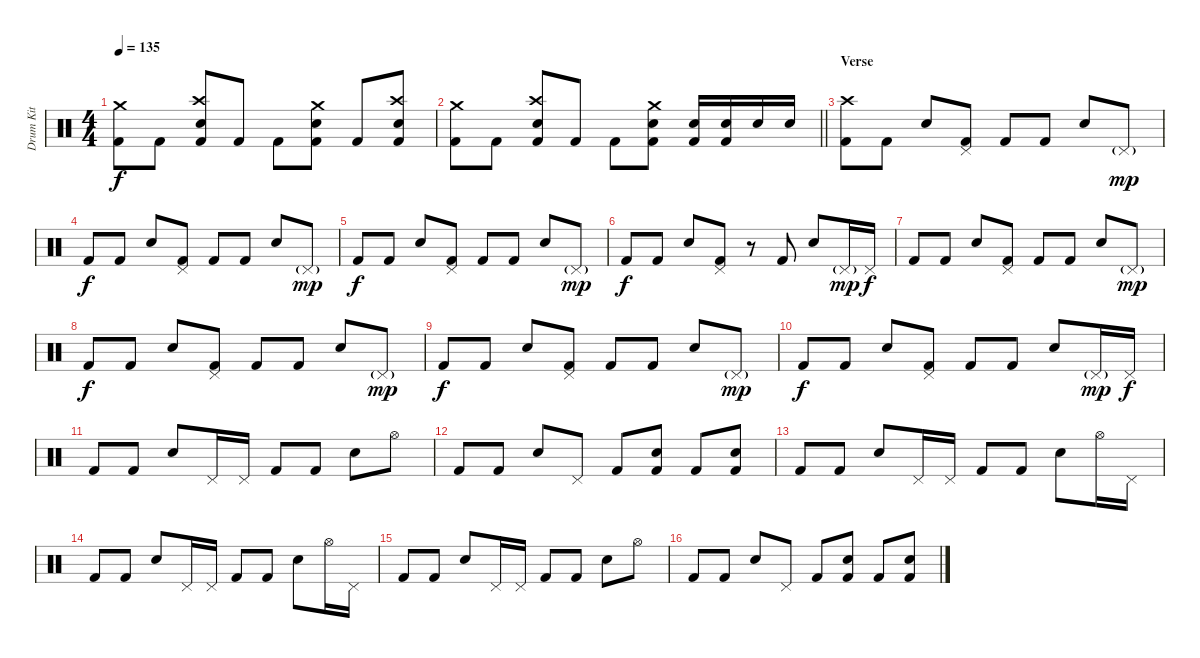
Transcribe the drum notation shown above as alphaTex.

\track ("Drum Kit" "Drum Kit") {instrument percussion}
\staff {score}
\articulation defaults
\ts (4 4)
\tempo 135
\clef neutral
\ks c
("Crash medium (hit)" "Kick (hit) 2").8{dy f} "Kick (hit) 2".8 ("Crash high (hit)" "Electric Snare (hit)" "Kick (hit) 2").8 "Kick (hit) 2".8 "Kick (hit) 2".8 ("Crash medium (hit)" "Electric Snare (hit)" "Kick (hit) 2").8 "Kick (hit) 2".8 ("Crash high (hit)" "Electric Snare (hit)" "Kick (hit) 2").8 |
\barLineRight lightlight
("Crash medium (hit)" "Kick (hit) 2").8 "Kick (hit) 2".8 ("Crash high (hit)" "Electric Snare (hit)" "Kick (hit) 2").8 "Kick (hit) 2".8 "Kick (hit) 2".8 ("Crash medium (hit)" "Electric Snare (hit)" "Kick (hit) 2").8 ("Electric Snare (hit)" "Kick (hit) 2").16 ("Electric Snare (hit)" "Kick (hit) 2").16 "Electric Snare (hit)".16 "Electric Snare (hit)".16 |
\section ("" "Verse")
("Crash high (hit)" "Kick (hit) 2").8 "Kick (hit) 2".8 "Electric Snare (hit)".8 ("Pedal Hi-Hat (hit)" "Kick (hit) 2").8 "Kick (hit) 2".8 "Kick (hit) 2".8 "Electric Snare (hit)".8 "Pedal Hi-Hat (hit)"{g}.8{dy mp} |
"Kick (hit) 2".8{dy f} "Kick (hit) 2".8 "Electric Snare (hit)".8 ("Pedal Hi-Hat (hit)" "Kick (hit) 2").8 "Kick (hit) 2".8 "Kick (hit) 2".8 "Electric Snare (hit)".8 "Pedal Hi-Hat (hit)"{g}.8{dy mp} |
"Kick (hit) 2".8{dy f} "Kick (hit) 2".8 "Electric Snare (hit)".8 ("Pedal Hi-Hat (hit)" "Kick (hit) 2").8 "Kick (hit) 2".8 "Kick (hit) 2".8 "Electric Snare (hit)".8 "Pedal Hi-Hat (hit)"{g}.8{dy mp} |
"Kick (hit) 2".8{dy f} "Kick (hit) 2".8 "Electric Snare (hit)".8 ("Pedal Hi-Hat (hit)" "Kick (hit) 2").8 r.8 "Kick (hit) 2".8 "Electric Snare (hit)".8 "Pedal Hi-Hat (hit)"{g}.16{dy mp} "Pedal Hi-Hat (hit)".16{dy f} |
"Kick (hit) 2".8 "Kick (hit) 2".8 "Electric Snare (hit)".8 ("Pedal Hi-Hat (hit)" "Kick (hit) 2").8 "Kick (hit) 2".8 "Kick (hit) 2".8 "Electric Snare (hit)".8 "Pedal Hi-Hat (hit)"{g}.8{dy mp} |
"Kick (hit) 2".8{dy f} "Kick (hit) 2".8 "Electric Snare (hit)".8 ("Pedal Hi-Hat (hit)" "Kick (hit) 2").8 "Kick (hit) 2".8 "Kick (hit) 2".8 "Electric Snare (hit)".8 "Pedal Hi-Hat (hit)"{g}.8{dy mp} |
"Kick (hit) 2".8{dy f} "Kick (hit) 2".8 "Electric Snare (hit)".8 ("Pedal Hi-Hat (hit)" "Kick (hit) 2").8 "Kick (hit) 2".8 "Kick (hit) 2".8 "Electric Snare (hit)".8 "Pedal Hi-Hat (hit)"{g}.8{dy mp} |
"Kick (hit) 2".8{dy f} "Kick (hit) 2".8 "Electric Snare (hit)".8 ("Pedal Hi-Hat (hit)" "Kick (hit) 2").8 "Kick (hit) 2".8 "Kick (hit) 2".8 "Electric Snare (hit)".8 "Pedal Hi-Hat (hit)"{g}.16{dy mp} "Pedal Hi-Hat (hit)".16{dy f} |
"Kick (hit) 2".8 "Kick (hit) 2".8 "Electric Snare (hit)".8 "Pedal Hi-Hat (hit)".16 "Pedal Hi-Hat (hit)".16 "Kick (hit) 2".8 "Kick (hit) 2".8 "Electric Snare (hit)".8 "Hi-Hat (open)".8 |
"Kick (hit) 2".8 "Kick (hit) 2".8 "Electric Snare (hit)".8 "Pedal Hi-Hat (hit)".8 "Kick (hit) 2".8 ("Electric Snare (hit)" "Kick (hit) 2").8 "Kick (hit) 2".8 ("Electric Snare (hit)" "Kick (hit) 2").8 |
"Kick (hit) 2".8 "Kick (hit) 2".8 "Electric Snare (hit)".8 "Pedal Hi-Hat (hit)".16 "Pedal Hi-Hat (hit)".16 "Kick (hit) 2".8 "Kick (hit) 2".8 "Electric Snare (hit)".8 "Hi-Hat (open)".16 "Pedal Hi-Hat (hit)".16 |
"Kick (hit) 2".8 "Kick (hit) 2".8 "Electric Snare (hit)".8 "Pedal Hi-Hat (hit)".16 "Pedal Hi-Hat (hit)".16 "Kick (hit) 2".8 "Kick (hit) 2".8 "Electric Snare (hit)".8 "Hi-Hat (open)".16 "Pedal Hi-Hat (hit)".16 |
"Kick (hit) 2".8 "Kick (hit) 2".8 "Electric Snare (hit)".8 "Pedal Hi-Hat (hit)".16 "Pedal Hi-Hat (hit)".16 "Kick (hit) 2".8 "Kick (hit) 2".8 "Electric Snare (hit)".8 "Hi-Hat (open)".8 |
"Kick (hit) 2".8 "Kick (hit) 2".8 "Electric Snare (hit)".8 "Pedal Hi-Hat (hit)".8 "Kick (hit) 2".8 ("Electric Snare (hit)" "Kick (hit) 2").8 "Kick (hit) 2".8 ("Electric Snare (hit)" "Kick (hit) 2").8
